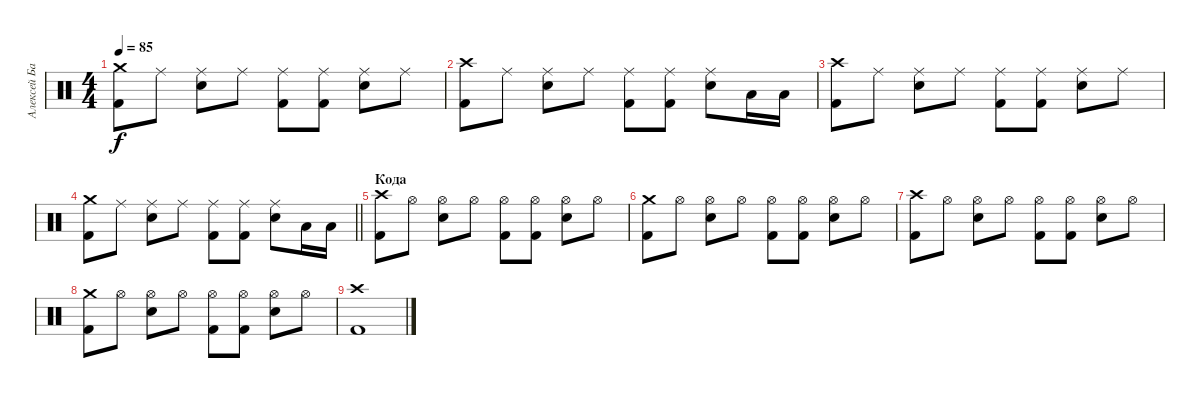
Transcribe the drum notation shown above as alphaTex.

\track ("Алексей Барзилович" "Алексей Ба") {instrument percussion}
\staff {score}
\articulation defaults
\ts (4 4)
\tempo 85
\clef neutral
\ks c
("Crash medium (hit)" "Kick (hit) 2").8{dy f} "Ride (middle)".8 ("Ride (middle)" "Electric Snare (hit)").8 "Ride (middle)".8 ("Ride (middle)" "Kick (hit) 2").8 ("Ride (middle)" "Kick (hit) 2").8 ("Ride (middle)" "Electric Snare (hit)").8 "Ride (middle)".8 |
("Crash high (hit)" "Kick (hit) 2").8 "Ride (middle)".8 ("Ride (middle)" "Electric Snare (hit)").8 "Ride (middle)".8 ("Ride (middle)" "Kick (hit) 2").8 ("Ride (middle)" "Kick (hit) 2").8 ("Ride (middle)" "Electric Snare (hit)").8 "Low Tom (hit)".16 "Low Tom (hit)".16 |
("Crash high (hit)" "Kick (hit) 2").8 "Ride (middle)".8 ("Ride (middle)" "Electric Snare (hit)").8 "Ride (middle)".8 ("Ride (middle)" "Kick (hit) 2").8 ("Ride (middle)" "Kick (hit) 2").8 ("Ride (middle)" "Electric Snare (hit)").8 "Ride (middle)".8 |
\barLineRight lightlight
("Crash medium (hit)" "Kick (hit) 2").8 "Ride (middle)".8 ("Ride (middle)" "Electric Snare (hit)").8 "Ride (middle)".8 ("Ride (middle)" "Kick (hit) 2").8 ("Ride (middle)" "Kick (hit) 2").8 ("Ride (middle)" "Electric Snare (hit)").8 "Low Tom (hit)".16 "Low Tom (hit)".16 |
\section ("" "Кода")
("Crash high (hit)" "Kick (hit) 2").8 "Hi-Hat (open)".8 ("Hi-Hat (open)" "Electric Snare (hit)").8 "Hi-Hat (open)".8 ("Hi-Hat (open)" "Kick (hit) 2").8 ("Hi-Hat (open)" "Kick (hit) 2").8 ("Hi-Hat (open)" "Electric Snare (hit)").8 "Hi-Hat (open)".8 |
("Crash medium (hit)" "Kick (hit) 2").8 "Hi-Hat (open)".8 ("Hi-Hat (open)" "Electric Snare (hit)").8 "Hi-Hat (open)".8 ("Hi-Hat (open)" "Kick (hit) 2").8 ("Hi-Hat (open)" "Kick (hit) 2").8 ("Hi-Hat (open)" "Electric Snare (hit)").8 "Hi-Hat (open)".8 |
("Crash high (hit)" "Kick (hit) 2").8 "Hi-Hat (open)".8 ("Hi-Hat (open)" "Electric Snare (hit)").8 "Hi-Hat (open)".8 ("Hi-Hat (open)" "Kick (hit) 2").8 ("Hi-Hat (open)" "Kick (hit) 2").8 ("Hi-Hat (open)" "Electric Snare (hit)").8 "Hi-Hat (open)".8 |
("Crash medium (hit)" "Kick (hit) 2").8 "Hi-Hat (open)".8 ("Hi-Hat (open)" "Electric Snare (hit)").8 "Hi-Hat (open)".8 ("Hi-Hat (open)" "Kick (hit) 2").8 ("Hi-Hat (open)" "Kick (hit) 2").8 ("Hi-Hat (open)" "Electric Snare (hit)").8 "Hi-Hat (open)".8 |
("Crash high (hit)" "Kick (hit) 2").1
